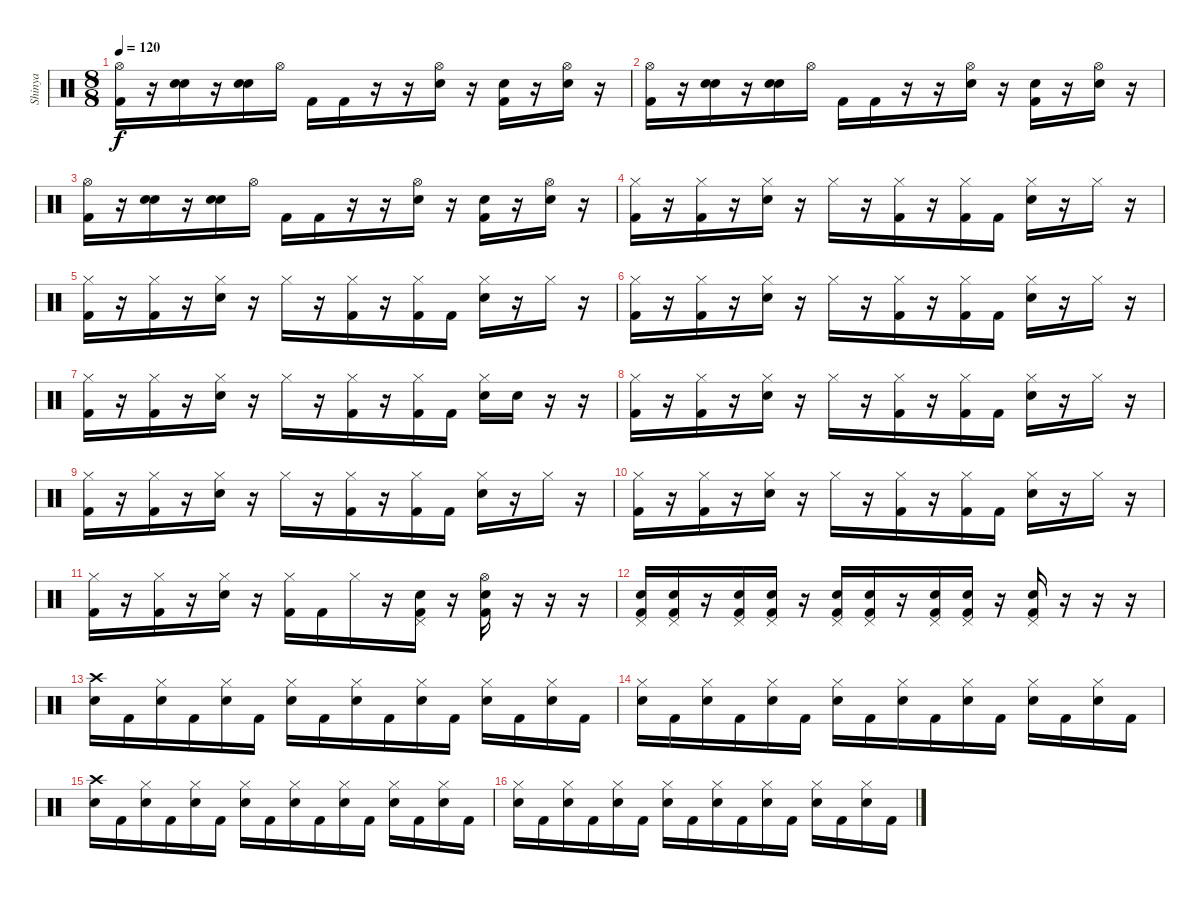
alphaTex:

\track ("Shinya" "Shinya") {instrument percussion}
\staff {score}
\articulation defaults
\ts (8 8)
\tempo 120
\clef neutral
\ks c
("Hi-Hat (open)" "Kick (hit) 2").16{dy f} r.16 ("Snare (hit) 2" "Snare (hit) 2").16 r.16 ("Snare (hit) 2" "Snare (hit) 2").16 "Hi-Hat (open)".16 "Kick (hit) 2".16 "Kick (hit) 2".16 r.16 r.16 ("Hi-Hat (open)" "Snare (hit) 2").16 r.16 ("Snare (hit) 2" "Kick (hit) 2").16 r.16 ("Hi-Hat (open)" "Snare (hit) 2").16 r.16 |
("Hi-Hat (open)" "Kick (hit) 2").16 r.16 ("Snare (hit) 2" "Snare (hit) 2").16 r.16 ("Snare (hit) 2" "Snare (hit) 2").16 "Hi-Hat (open)".16 "Kick (hit) 2".16 "Kick (hit) 2".16 r.16 r.16 ("Hi-Hat (open)" "Snare (hit) 2").16 r.16 ("Snare (hit) 2" "Kick (hit) 2").16 r.16 ("Hi-Hat (open)" "Snare (hit) 2").16 r.16 |
("Hi-Hat (open)" "Kick (hit) 2").16 r.16 ("Snare (hit) 2" "Snare (hit) 2").16 r.16 ("Snare (hit) 2" "Snare (hit) 2").16 "Hi-Hat (open)".16 "Kick (hit) 2".16 "Kick (hit) 2".16 r.16 r.16 ("Hi-Hat (open)" "Snare (hit) 2").16 r.16 ("Snare (hit) 2" "Kick (hit) 2").16 r.16 ("Hi-Hat (open)" "Snare (hit) 2").16 r.16 |
("Hi-Hat (closed)" "Kick (hit) 2").16 r.16 ("Hi-Hat (closed)" "Kick (hit) 2").16 r.16 ("Hi-Hat (closed)" "Snare (hit) 2").16 r.16 "Hi-Hat (closed)".16 r.16 ("Hi-Hat (closed)" "Kick (hit) 2").16 r.16 ("Hi-Hat (closed)" "Kick (hit) 2").16 "Kick (hit) 2".16 ("Hi-Hat (closed)" "Snare (hit) 2").16 r.16 "Hi-Hat (closed)".16 r.16 |
("Hi-Hat (closed)" "Kick (hit) 2").16 r.16 ("Hi-Hat (closed)" "Kick (hit) 2").16 r.16 ("Hi-Hat (closed)" "Snare (hit) 2").16 r.16 "Hi-Hat (closed)".16 r.16 ("Hi-Hat (closed)" "Kick (hit) 2").16 r.16 ("Hi-Hat (closed)" "Kick (hit) 2").16 "Kick (hit) 2".16 ("Hi-Hat (closed)" "Snare (hit) 2").16 r.16 "Hi-Hat (closed)".16 r.16 |
("Hi-Hat (closed)" "Kick (hit) 2").16 r.16 ("Hi-Hat (closed)" "Kick (hit) 2").16 r.16 ("Hi-Hat (closed)" "Snare (hit) 2").16 r.16 "Hi-Hat (closed)".16 r.16 ("Hi-Hat (closed)" "Kick (hit) 2").16 r.16 ("Hi-Hat (closed)" "Kick (hit) 2").16 "Kick (hit) 2".16 ("Hi-Hat (closed)" "Snare (hit) 2").16 r.16 "Hi-Hat (closed)".16 r.16 |
("Hi-Hat (closed)" "Kick (hit) 2").16 r.16 ("Hi-Hat (closed)" "Kick (hit) 2").16 r.16 ("Hi-Hat (closed)" "Snare (hit) 2").16 r.16 "Hi-Hat (closed)".16 r.16 ("Hi-Hat (closed)" "Kick (hit) 2").16 r.16 ("Hi-Hat (closed)" "Kick (hit) 2").16 "Kick (hit) 2".16 ("Hi-Hat (closed)" "Snare (hit) 2").16 "Snare (hit) 2".16 r.16 r.16 |
("Hi-Hat (closed)" "Kick (hit) 2").16 r.16 ("Hi-Hat (closed)" "Kick (hit) 2").16 r.16 ("Hi-Hat (closed)" "Snare (hit) 2").16 r.16 "Hi-Hat (closed)".16 r.16 ("Hi-Hat (closed)" "Kick (hit) 2").16 r.16 ("Hi-Hat (closed)" "Kick (hit) 2").16 "Kick (hit) 2".16 ("Hi-Hat (closed)" "Snare (hit) 2").16 r.16 "Hi-Hat (closed)".16 r.16 |
("Hi-Hat (closed)" "Kick (hit) 2").16 r.16 ("Hi-Hat (closed)" "Kick (hit) 2").16 r.16 ("Hi-Hat (closed)" "Snare (hit) 2").16 r.16 "Hi-Hat (closed)".16 r.16 ("Hi-Hat (closed)" "Kick (hit) 2").16 r.16 ("Hi-Hat (closed)" "Kick (hit) 2").16 "Kick (hit) 2".16 ("Hi-Hat (closed)" "Snare (hit) 2").16 r.16 "Hi-Hat (closed)".16 r.16 |
("Hi-Hat (closed)" "Kick (hit) 2").16 r.16 ("Hi-Hat (closed)" "Kick (hit) 2").16 r.16 ("Hi-Hat (closed)" "Snare (hit) 2").16 r.16 "Hi-Hat (closed)".16 r.16 ("Hi-Hat (closed)" "Kick (hit) 2").16 r.16 ("Hi-Hat (closed)" "Kick (hit) 2").16 "Kick (hit) 2".16 ("Hi-Hat (closed)" "Snare (hit) 2").16 r.16 "Hi-Hat (closed)".16 r.16 |
("Hi-Hat (closed)" "Kick (hit) 2").16 r.16 ("Hi-Hat (closed)" "Kick (hit) 2").16 r.16 ("Hi-Hat (closed)" "Snare (hit) 2").16 r.16 ("Hi-Hat (closed)" "Kick (hit) 2").16 "Kick (hit) 2".16 "Hi-Hat (closed)".16 r.16 ("Pedal Hi-Hat (hit)" "Snare (hit) 2" "Kick (hit) 2").16 r.16 ("Hi-Hat (open)" "Snare (hit) 2" "Kick (hit) 2").16 r.16 r.16 r.16 |
("Pedal Hi-Hat (hit)" "Snare (hit) 2" "Kick (hit) 2").16 ("Pedal Hi-Hat (hit)" "Snare (hit) 2" "Kick (hit) 2").16 r.16 ("Pedal Hi-Hat (hit)" "Snare (hit) 2" "Kick (hit) 2").16 ("Pedal Hi-Hat (hit)" "Snare (hit) 2" "Kick (hit) 2").16 r.16 ("Pedal Hi-Hat (hit)" "Snare (hit) 2" "Kick (hit) 2").16 ("Pedal Hi-Hat (hit)" "Snare (hit) 2" "Kick (hit) 2").16 r.16 ("Pedal Hi-Hat (hit)" "Snare (hit) 2" "Kick (hit) 2").16 ("Pedal Hi-Hat (hit)" "Snare (hit) 2" "Kick (hit) 2").16 r.16 ("Pedal Hi-Hat (hit)" "Snare (hit) 2" "Kick (hit) 2").16 r.16 r.16 r.16 |
("Crash high (hit)" "Snare (hit) 2").16 "Kick (hit) 2".16 ("Hi-Hat (closed)" "Snare (hit) 2").16 "Kick (hit) 2".16 ("Hi-Hat (closed)" "Snare (hit) 2").16 "Kick (hit) 2".16 ("Hi-Hat (closed)" "Snare (hit) 2").16 "Kick (hit) 2".16 ("Hi-Hat (closed)" "Snare (hit) 2").16 "Kick (hit) 2".16 ("Hi-Hat (closed)" "Snare (hit) 2").16 "Kick (hit) 2".16 ("Hi-Hat (closed)" "Snare (hit) 2").16 "Kick (hit) 2".16 ("Hi-Hat (closed)" "Snare (hit) 2").16 "Kick (hit) 2".16 |
("Hi-Hat (closed)" "Snare (hit) 2").16 "Kick (hit) 2".16 ("Hi-Hat (closed)" "Snare (hit) 2").16 "Kick (hit) 2".16 ("Hi-Hat (closed)" "Snare (hit) 2").16 "Kick (hit) 2".16 ("Hi-Hat (closed)" "Snare (hit) 2").16 "Kick (hit) 2".16 ("Hi-Hat (closed)" "Snare (hit) 2").16 "Kick (hit) 2".16 ("Hi-Hat (closed)" "Snare (hit) 2").16 "Kick (hit) 2".16 ("Hi-Hat (closed)" "Snare (hit) 2").16 "Kick (hit) 2".16 ("Hi-Hat (closed)" "Snare (hit) 2").16 "Kick (hit) 2".16 |
("Crash high (hit)" "Snare (hit) 2").16 "Kick (hit) 2".16 ("Hi-Hat (closed)" "Snare (hit) 2").16 "Kick (hit) 2".16 ("Hi-Hat (closed)" "Snare (hit) 2").16 "Kick (hit) 2".16 ("Hi-Hat (closed)" "Snare (hit) 2").16 "Kick (hit) 2".16 ("Hi-Hat (closed)" "Snare (hit) 2").16 "Kick (hit) 2".16 ("Hi-Hat (closed)" "Snare (hit) 2").16 "Kick (hit) 2".16 ("Hi-Hat (closed)" "Snare (hit) 2").16 "Kick (hit) 2".16 ("Hi-Hat (closed)" "Snare (hit) 2").16 "Kick (hit) 2".16 |
("Hi-Hat (closed)" "Snare (hit) 2").16 "Kick (hit) 2".16 ("Hi-Hat (closed)" "Snare (hit) 2").16 "Kick (hit) 2".16 ("Hi-Hat (closed)" "Snare (hit) 2").16 "Kick (hit) 2".16 ("Hi-Hat (closed)" "Snare (hit) 2").16 "Kick (hit) 2".16 ("Hi-Hat (closed)" "Snare (hit) 2").16 "Kick (hit) 2".16 ("Hi-Hat (closed)" "Snare (hit) 2").16 "Kick (hit) 2".16 ("Hi-Hat (closed)" "Snare (hit) 2").16 "Kick (hit) 2".16 ("Hi-Hat (closed)" "Snare (hit) 2").16 "Kick (hit) 2".16
